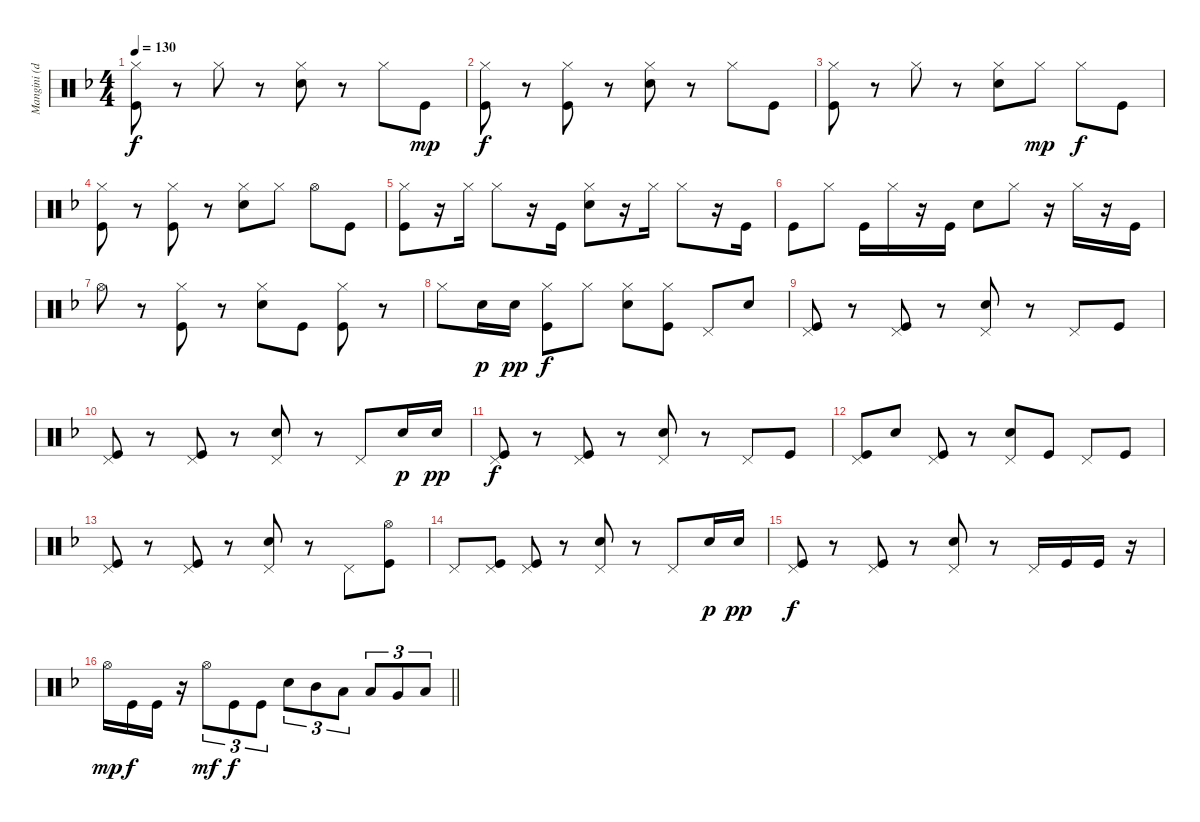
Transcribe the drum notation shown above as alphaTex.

\track ("Mangini (drums)" "Mangini (d") {instrument percussion}
\staff {score}
\articulation defaults
\ts (4 4)
\tempo 130
\clef neutral
\ks dminor
("Hi-Hat (closed)" "Kick (hit)").8{dy f} r.8 "Hi-Hat (closed)".8 r.8 ("Hi-Hat (closed)" "Snare (hit) 2").8 r.8 "Hi-Hat (closed)".8 "Kick (hit)".8{dy mp} |
("Hi-Hat (closed)" "Kick (hit)").8{dy f} r.8 ("Hi-Hat (closed)" "Kick (hit)").8 r.8 ("Hi-Hat (closed)" "Snare (hit) 2").8 r.8 "Hi-Hat (closed)".8 "Kick (hit)".8 |
("Hi-Hat (closed)" "Kick (hit)").8 r.8 "Hi-Hat (closed)".8 r.8 ("Hi-Hat (closed)" "Snare (hit) 2").8 "Hi-Hat (closed)".8{dy mp} "Hi-Hat (closed)".8{dy f} "Kick (hit)".8 |
("Hi-Hat (closed)" "Kick (hit)").8 r.8 ("Hi-Hat (closed)" "Kick (hit)").8 r.8 ("Hi-Hat (closed)" "Snare (hit) 2").8 "Hi-Hat (closed)".8 "Hi-Hat (open)".8 "Kick (hit)".8 |
("Hi-Hat (closed)" "Kick (hit)").8 r.16 "Hi-Hat (closed)".16 "Hi-Hat (closed)".8 r.16 "Kick (hit)".16 ("Hi-Hat (closed)" "Snare (hit) 2").8 r.16 "Hi-Hat (closed)".16 "Hi-Hat (closed)".8 r.16 "Kick (hit)".16 |
"Kick (hit)".8 "Hi-Hat (closed)".8 "Kick (hit)".16 "Hi-Hat (closed)".16 r.16 "Kick (hit)".16 "Snare (hit) 2".8 "Hi-Hat (closed)".8 r.16 "Hi-Hat (closed)".16 r.16 "Kick (hit)".16 |
"Hi-Hat (open)".8 r.8 ("Hi-Hat (closed)" "Kick (hit)").8 r.8 ("Hi-Hat (closed)" "Snare (hit) 2").8 "Kick (hit)".8 ("Hi-Hat (closed)" "Kick (hit)").8 r.8 |
"Hi-Hat (closed)".8 "Snare (hit) 2".16{dy p} "Snare (hit) 2".16{dy pp} ("Hi-Hat (closed)" "Kick (hit)").8{dy f} "Hi-Hat (closed)".8 ("Hi-Hat (closed)" "Snare (hit) 2").8 ("Hi-Hat (closed)" "Kick (hit)").8 "Pedal Hi-Hat (hit)".8 "Snare (hit) 2".8 |
("Pedal Hi-Hat (hit)" "Kick (hit)").8 r.8 ("Pedal Hi-Hat (hit)" "Kick (hit)").8 r.8 ("Pedal Hi-Hat (hit)" "Snare (hit) 2").8 r.8 "Pedal Hi-Hat (hit)".8 "Kick (hit)".8 |
("Pedal Hi-Hat (hit)" "Kick (hit)").8 r.8 ("Pedal Hi-Hat (hit)" "Kick (hit)").8 r.8 ("Pedal Hi-Hat (hit)" "Snare (hit) 2").8 r.8 "Pedal Hi-Hat (hit)".8 "Snare (hit) 2".16{dy p} "Snare (hit) 2".16{dy pp} |
("Pedal Hi-Hat (hit)" "Kick (hit)").8{dy f} r.8 ("Pedal Hi-Hat (hit)" "Kick (hit)").8 r.8 ("Pedal Hi-Hat (hit)" "Snare (hit) 2").8 r.8 "Pedal Hi-Hat (hit)".8 "Kick (hit)".8 |
("Pedal Hi-Hat (hit)" "Kick (hit)").8 "Snare (hit) 2".8 ("Pedal Hi-Hat (hit)" "Kick (hit)").8 r.8 ("Pedal Hi-Hat (hit)" "Snare (hit) 2").8 "Kick (hit)".8 "Pedal Hi-Hat (hit)".8 "Kick (hit)".8 |
("Pedal Hi-Hat (hit)" "Kick (hit)").8 r.8 ("Pedal Hi-Hat (hit)" "Kick (hit)").8 r.8 ("Pedal Hi-Hat (hit)" "Snare (hit) 2").8 r.8 "Pedal Hi-Hat (hit)".8 ("Hi-Hat (open)" "Kick (hit)").8 |
"Pedal Hi-Hat (hit)".8 ("Pedal Hi-Hat (hit)" "Kick (hit)").8 ("Pedal Hi-Hat (hit)" "Kick (hit)").8 r.8 ("Pedal Hi-Hat (hit)" "Snare (hit) 2").8 r.8 "Pedal Hi-Hat (hit)".8 "Snare (hit) 2".16{dy p} "Snare (hit) 2".16{dy pp} |
("Pedal Hi-Hat (hit)" "Kick (hit)").8{dy f} r.8 ("Pedal Hi-Hat (hit)" "Kick (hit)").8 r.8 ("Pedal Hi-Hat (hit)" "Snare (hit) 2").8 r.8 "Pedal Hi-Hat (hit)".16 "Kick (hit)".16 "Kick (hit)".16 r.16 |
\barLineRight lightlight "Hi-Hat (open)".16{dy mp} "Kick (hit)".16{dy f} "Kick (hit)".16
r.16 "Hi-Hat (open)".8{tu (3 2) dy mf} "Kick (hit)".8{tu (3 2) dy f} "Kick (hit)".8{tu (3 2)} "Snare (hit) 2".8{tu (3 2)} "Mid Tom (hit)".8{tu (3 2)} "Low Tom (hit)".8{tu (3 2)} "Low Tom (hit)".8{tu (3 2)} "Very Low Tom (hit)".8{tu (3 2)} "Low Floor Tom (hit)".8{tu (3 2)}
